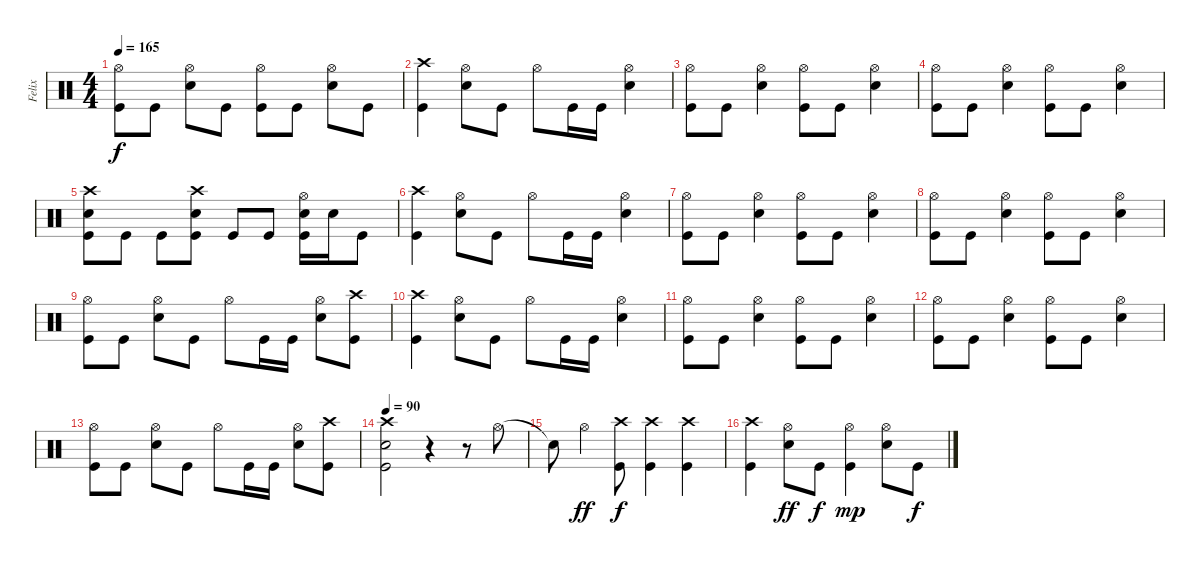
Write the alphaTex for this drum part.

\track ("Felix" "Felix") {instrument percussion}
\staff {score}
\articulation defaults
\ts (4 4)
\tempo 165
\clef neutral
\ks c
("Hi-Hat (open)" "Kick (hit)").8{dy f} "Kick (hit)".8 ("Hi-Hat (open)" "Snare (hit) 2").8 "Kick (hit)".8 ("Hi-Hat (open)" "Kick (hit)").8 "Kick (hit)".8 ("Hi-Hat (open)" "Snare (hit) 2").8 "Kick (hit)".8 |
("Crash high (hit)" "Kick (hit)").4 ("Hi-Hat (open)" "Snare (hit) 2").8 "Kick (hit)".8 "Hi-Hat (open)".8 "Kick (hit)".16 "Kick (hit)".16 ("Hi-Hat (open)" "Snare (hit) 2").4 |
("Hi-Hat (open)" "Kick (hit)").8 "Kick (hit)".8 ("Hi-Hat (open)" "Snare (hit) 2").4 ("Hi-Hat (open)" "Kick (hit)").8 "Kick (hit)".8 ("Hi-Hat (open)" "Snare (hit) 2").4 |
("Hi-Hat (open)" "Kick (hit)").8 "Kick (hit)".8 ("Hi-Hat (open)" "Snare (hit) 2").4 ("Hi-Hat (open)" "Kick (hit)").8 "Kick (hit)".8 ("Hi-Hat (open)" "Snare (hit) 2").4 |
("Crash high (hit)" "Snare (hit) 2" "Kick (hit)").8 "Kick (hit)".8 "Kick (hit)".8 ("Crash high (hit)" "Snare (hit) 2" "Kick (hit)").8 "Kick (hit)".8 "Kick (hit)".8 ("Hi-Hat (open)" "Snare (hit) 2" "Kick (hit)").16 "Snare (hit) 2".16 "Kick (hit)".8 |
("Crash high (hit)" "Kick (hit)").4 ("Hi-Hat (open)" "Snare (hit) 2").8 "Kick (hit)".8 "Hi-Hat (open)".8 "Kick (hit)".16 "Kick (hit)".16 ("Hi-Hat (open)" "Snare (hit) 2").4 |
("Hi-Hat (open)" "Kick (hit)").8 "Kick (hit)".8 ("Hi-Hat (open)" "Snare (hit) 2").4 ("Hi-Hat (open)" "Kick (hit)").8 "Kick (hit)".8 ("Hi-Hat (open)" "Snare (hit) 2").4 |
("Hi-Hat (open)" "Kick (hit)").8 "Kick (hit)".8 ("Hi-Hat (open)" "Snare (hit) 2").4 ("Hi-Hat (open)" "Kick (hit)").8 "Kick (hit)".8 ("Hi-Hat (open)" "Snare (hit) 2").4 |
("Hi-Hat (open)" "Kick (hit)").8 "Kick (hit)".8 ("Hi-Hat (open)" "Snare (hit) 2").8 "Kick (hit)".8 "Hi-Hat (open)".8 "Kick (hit)".16 "Kick (hit)".16 ("Hi-Hat (open)" "Snare (hit) 2").8 ("Crash high (hit)" "Kick (hit)").8 |
("Crash high (hit)" "Kick (hit)").4 ("Hi-Hat (open)" "Snare (hit) 2").8 "Kick (hit)".8 "Hi-Hat (open)".8 "Kick (hit)".16 "Kick (hit)".16 ("Hi-Hat (open)" "Snare (hit) 2").4 |
("Hi-Hat (open)" "Kick (hit)").8 "Kick (hit)".8 ("Hi-Hat (open)" "Snare (hit) 2").4 ("Hi-Hat (open)" "Kick (hit)").8 "Kick (hit)".8 ("Hi-Hat (open)" "Snare (hit) 2").4 |
("Hi-Hat (open)" "Kick (hit)").8 "Kick (hit)".8 ("Hi-Hat (open)" "Snare (hit) 2").4 ("Hi-Hat (open)" "Kick (hit)").8 "Kick (hit)".8 ("Hi-Hat (open)" "Snare (hit) 2").4 |
("Hi-Hat (open)" "Kick (hit)").8 "Kick (hit)".8 ("Hi-Hat (open)" "Snare (hit) 2").8 "Kick (hit)".8 "Hi-Hat (open)".8 "Kick (hit)".16 "Kick (hit)".16 ("Hi-Hat (open)" "Snare (hit) 2").8 ("Crash high (hit)" "Kick (hit)").8 |
\tempo 90
("Crash high (hit)" "Snare (hit) 2" "Kick (hit)").2 r.4 r.8 "Hi-Hat (open)".8 |
"Snare (hit)"{t}.8 "Hi-Hat (open)".4{dy ff} ("Crash high (hit)" "Kick (hit)").8{dy f} ("Crash high (hit)" "Kick (hit)").4 ("Crash high (hit)" "Kick (hit)").4 |
("Crash high (hit)" "Kick (hit)").4 ("Hi-Hat (open)" "Snare (hit) 2").8{dy ff} "Kick (hit)".8{dy f} ("Hi-Hat (open)" "Kick (hit)").4{dy mp} ("Hi-Hat (open)" "Snare (hit) 2").8 "Kick (hit)".8{dy f}
